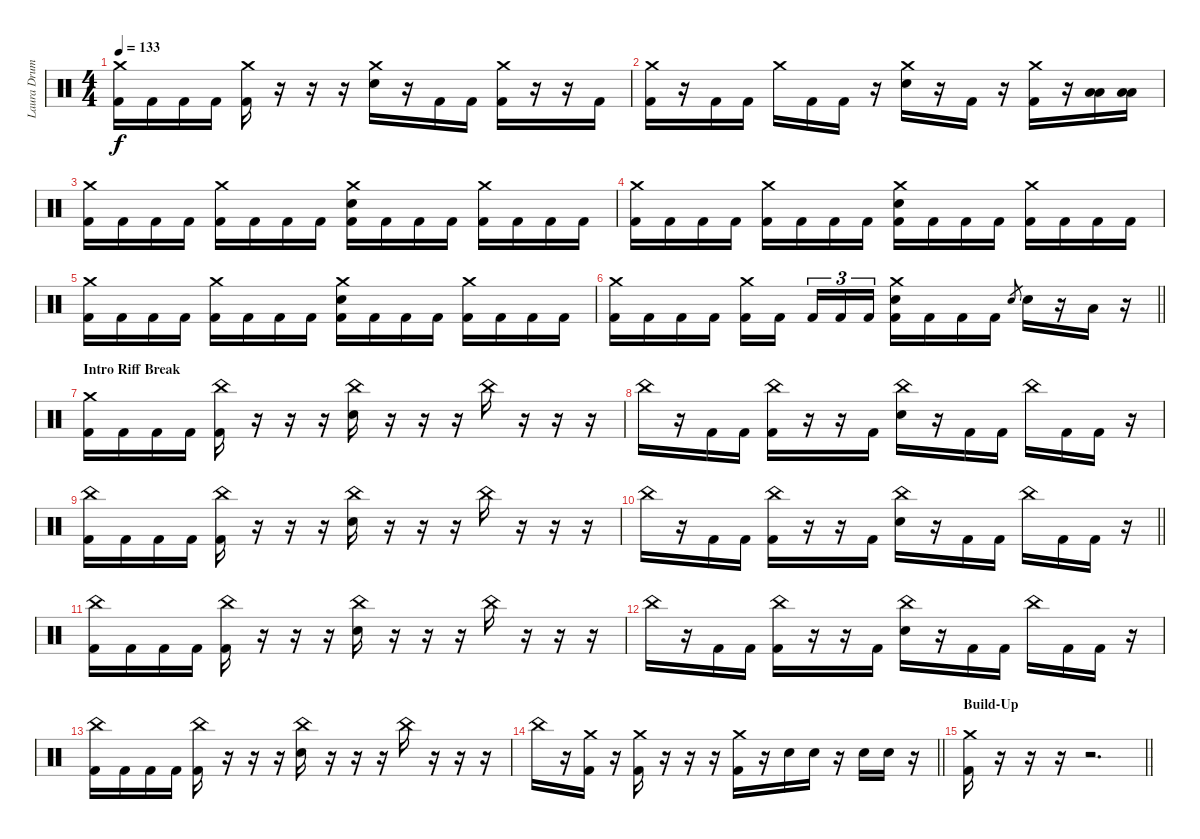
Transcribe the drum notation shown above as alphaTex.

\track ("Laura Drums" "Laura Drum") {instrument percussion}
\staff {score}
\articulation defaults
\ts (4 4)
\tempo 133
\clef neutral
\ks c
("Crash medium (hit)" "Kick (hit) 2").16{dy f} "Kick (hit) 2".16 "Kick (hit) 2".16 "Kick (hit) 2".16 ("Crash medium (hit)" "Kick (hit) 2").16 r.16 r.16 r.16 ("Crash medium (hit)" "Electric Snare (hit)").16 r.16 "Kick (hit) 2".16 "Kick (hit) 2".16 ("Crash medium (hit)" "Kick (hit) 2").16 r.16 r.16 "Kick (hit) 2".16 |
("Crash medium (hit)" "Kick (hit) 2").16 r.16 "Kick (hit) 2".16 "Kick (hit) 2".16 "Crash medium (hit)".16 "Kick (hit) 2".16 "Kick (hit) 2".16 r.16 ("Crash medium (hit)" "Electric Snare (hit)").16 r.16 "Kick (hit) 2".16 r.16 ("Crash medium (hit)" "Kick (hit) 2").16 r.16 ("Low Tom (hit)" "Low Tom (hit)").16 ("Low Tom (hit)" "Low Tom (hit)").16 |
("Crash medium (hit)" "Kick (hit) 2").16 "Kick (hit) 2".16 "Kick (hit) 2".16 "Kick (hit) 2".16 ("Crash medium (hit)" "Kick (hit) 2").16 "Kick (hit) 2".16 "Kick (hit) 2".16 "Kick (hit) 2".16 ("Crash medium (hit)" "Electric Snare (hit)" "Kick (hit) 2").16 "Kick (hit) 2".16 "Kick (hit) 2".16 "Kick (hit) 2".16 ("Crash medium (hit)" "Kick (hit) 2").16 "Kick (hit) 2".16 "Kick (hit) 2".16 "Kick (hit) 2".16 |
("Crash medium (hit)" "Kick (hit) 2").16 "Kick (hit) 2".16 "Kick (hit) 2".16 "Kick (hit) 2".16 ("Crash medium (hit)" "Kick (hit) 2").16 "Kick (hit) 2".16 "Kick (hit) 2".16 "Kick (hit) 2".16 ("Crash medium (hit)" "Electric Snare (hit)" "Kick (hit) 2").16 "Kick (hit) 2".16 "Kick (hit) 2".16 "Kick (hit) 2".16 ("Crash medium (hit)" "Kick (hit) 2").16 "Kick (hit) 2".16 "Kick (hit) 2".16 "Kick (hit) 2".16 |
("Crash medium (hit)" "Kick (hit) 2").16 "Kick (hit) 2".16 "Kick (hit) 2".16 "Kick (hit) 2".16 ("Crash medium (hit)" "Kick (hit) 2").16 "Kick (hit) 2".16 "Kick (hit) 2".16 "Kick (hit) 2".16 ("Crash medium (hit)" "Electric Snare (hit)" "Kick (hit) 2").16 "Kick (hit) 2".16 "Kick (hit) 2".16 "Kick (hit) 2".16 ("Crash medium (hit)" "Kick (hit) 2").16 "Kick (hit) 2".16 "Kick (hit) 2".16 "Kick (hit) 2".16 |
\barLineRight lightlight
("Crash medium (hit)" "Kick (hit) 2").16 "Kick (hit) 2".16 "Kick (hit) 2".16 "Kick (hit) 2".16 ("Crash medium (hit)" "Kick (hit) 2").16 "Kick (hit) 2".16{beam splitsecondary} "Kick (hit) 2".16{tu (3 2)} "Kick (hit) 2".16{tu (3 2)} "Kick (hit) 2".16{tu (3 2)} ("Crash medium (hit)" "Electric Snare (hit)" "Kick (hit) 2").16 "Kick (hit) 2".16 "Kick (hit) 2".16 "Kick (hit) 2".16 "Electric Snare (hit)".8{gr} "Electric Snare (hit)".16 r.16 "Low Tom (hit)".16 r.16 |
\section ("" "Intro Riff Break")
("Crash medium (hit)" "Kick (hit) 2").16 "Kick (hit) 2".16 "Kick (hit) 2".16 "Kick (hit) 2".16 ("China (hit)" "Kick (hit) 2").16 r.16 r.16 r.16 ("China (hit)" "Electric Snare (hit)").16 r.16 r.16 r.16 "China (hit)".16 r.16 r.16 r.16 |
"China (hit)".16 r.16 "Kick (hit) 2".16 "Kick (hit) 2".16 ("China (hit)" "Kick (hit) 2").16 r.16 r.16 "Kick (hit) 2".16 ("China (hit)" "Electric Snare (hit)").16 r.16 "Kick (hit) 2".16 "Kick (hit) 2".16 "China (hit)".16 "Kick (hit) 2".16 "Kick (hit) 2".16 r.16 |
("China (hit)" "Kick (hit) 2").16 "Kick (hit) 2".16 "Kick (hit) 2".16 "Kick (hit) 2".16 ("China (hit)" "Kick (hit) 2").16 r.16 r.16 r.16 ("China (hit)" "Electric Snare (hit)").16 r.16 r.16 r.16 "China (hit)".16 r.16 r.16 r.16 |
\barLineRight lightlight "China (hit)".16
r.16 "Kick (hit) 2".16 "Kick (hit) 2".16 ("China (hit)" "Kick (hit) 2").16 r.16 r.16 "Kick (hit) 2".16 ("China (hit)" "Electric Snare (hit)").16 r.16 "Kick (hit) 2".16 "Kick (hit) 2".16 "China (hit)".16 "Kick (hit) 2".16 "Kick (hit) 2".16 r.16 |
\section ("" "")
("China (hit)" "Kick (hit) 2").16 "Kick (hit) 2".16 "Kick (hit) 2".16 "Kick (hit) 2".16 ("China (hit)" "Kick (hit) 2").16 r.16 r.16 r.16 ("China (hit)" "Electric Snare (hit)").16 r.16 r.16 r.16 "China (hit)".16 r.16 r.16 r.16 |
"China (hit)".16 r.16 "Kick (hit) 2".16 "Kick (hit) 2".16 ("China (hit)" "Kick (hit) 2").16 r.16 r.16 "Kick (hit) 2".16 ("China (hit)" "Electric Snare (hit)").16 r.16 "Kick (hit) 2".16 "Kick (hit) 2".16 "China (hit)".16 "Kick (hit) 2".16 "Kick (hit) 2".16 r.16 |
("China (hit)" "Kick (hit) 2").16 "Kick (hit) 2".16 "Kick (hit) 2".16 "Kick (hit) 2".16 ("China (hit)" "Kick (hit) 2").16 r.16 r.16 r.16 ("China (hit)" "Electric Snare (hit)").16 r.16 r.16 r.16 "China (hit)".16 r.16 r.16 r.16 |
\barLineRight lightlight "China (hit)".16
r.16 ("Crash medium (hit)" "Kick (hit) 2").16 r.16 ("Crash medium (hit)" "Kick (hit) 2").16 r.16 r.16 r.16 ("Crash medium (hit)" "Kick (hit) 2").16 r.16 "Electric Snare (hit)".16 "Electric Snare (hit)".16 r.16 "Electric Snare (hit)".16 "Electric Snare (hit)".16 r.16 |
\section ("" "Build-Up")
\barLineRight lightlight
("Crash medium (hit)" "Kick (hit) 2").16 r.16 r.16 r.16 r.2{d}
